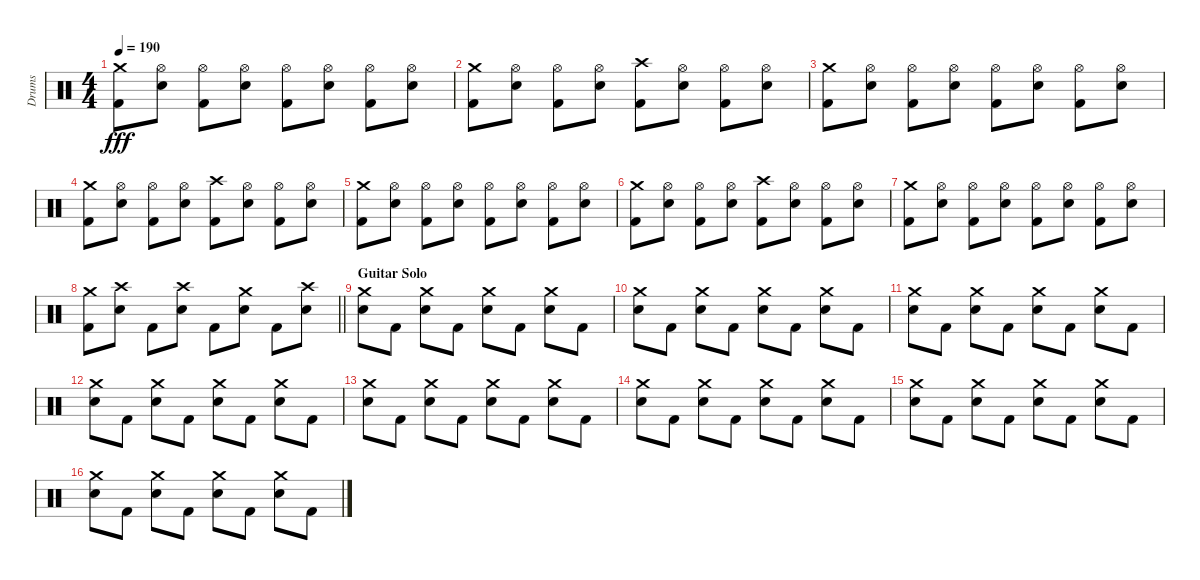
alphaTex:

\track ("Drums" "Drums") {instrument percussion}
\staff {score}
\articulation defaults
\ts (4 4)
\tempo 190
\clef neutral
\ks c
("Crash medium (hit)" "Kick (hit) 2").8{dy fff} ("Hi-Hat (open)" "Electric Snare (hit)").8 ("Hi-Hat (open)" "Kick (hit) 2").8 ("Hi-Hat (open)" "Electric Snare (hit)").8 ("Hi-Hat (open)" "Kick (hit) 2").8 ("Hi-Hat (open)" "Electric Snare (hit)").8 ("Hi-Hat (open)" "Kick (hit) 2").8 ("Hi-Hat (open)" "Electric Snare (hit)").8 |
("Crash medium (hit)" "Kick (hit) 2").8 ("Hi-Hat (open)" "Electric Snare (hit)").8 ("Hi-Hat (open)" "Kick (hit) 2").8 ("Hi-Hat (open)" "Electric Snare (hit)").8 ("Crash high (hit)" "Kick (hit) 2").8 ("Hi-Hat (open)" "Electric Snare (hit)").8 ("Hi-Hat (open)" "Kick (hit) 2").8 ("Hi-Hat (open)" "Electric Snare (hit)").8 |
("Crash medium (hit)" "Kick (hit) 2").8 ("Hi-Hat (open)" "Electric Snare (hit)").8 ("Hi-Hat (open)" "Kick (hit) 2").8 ("Hi-Hat (open)" "Electric Snare (hit)").8 ("Hi-Hat (open)" "Kick (hit) 2").8 ("Hi-Hat (open)" "Electric Snare (hit)").8 ("Hi-Hat (open)" "Kick (hit) 2").8 ("Hi-Hat (open)" "Electric Snare (hit)").8 |
("Crash medium (hit)" "Kick (hit) 2").8 ("Hi-Hat (open)" "Electric Snare (hit)").8 ("Hi-Hat (open)" "Kick (hit) 2").8 ("Hi-Hat (open)" "Electric Snare (hit)").8 ("Crash high (hit)" "Kick (hit) 2").8 ("Hi-Hat (open)" "Electric Snare (hit)").8 ("Hi-Hat (open)" "Kick (hit) 2").8 ("Hi-Hat (open)" "Electric Snare (hit)").8 |
("Crash medium (hit)" "Kick (hit) 2").8 ("Hi-Hat (open)" "Electric Snare (hit)").8 ("Hi-Hat (open)" "Kick (hit) 2").8 ("Hi-Hat (open)" "Electric Snare (hit)").8 ("Hi-Hat (open)" "Kick (hit) 2").8 ("Hi-Hat (open)" "Electric Snare (hit)").8 ("Hi-Hat (open)" "Kick (hit) 2").8 ("Hi-Hat (open)" "Electric Snare (hit)").8 |
("Crash medium (hit)" "Kick (hit) 2").8 ("Hi-Hat (open)" "Electric Snare (hit)").8 ("Hi-Hat (open)" "Kick (hit) 2").8 ("Hi-Hat (open)" "Electric Snare (hit)").8 ("Crash high (hit)" "Kick (hit) 2").8 ("Hi-Hat (open)" "Electric Snare (hit)").8 ("Hi-Hat (open)" "Kick (hit) 2").8 ("Hi-Hat (open)" "Electric Snare (hit)").8 |
("Crash medium (hit)" "Kick (hit) 2").8 ("Hi-Hat (open)" "Electric Snare (hit)").8 ("Hi-Hat (open)" "Kick (hit) 2").8 ("Hi-Hat (open)" "Electric Snare (hit)").8 ("Hi-Hat (open)" "Kick (hit) 2").8 ("Hi-Hat (open)" "Electric Snare (hit)").8 ("Hi-Hat (open)" "Kick (hit) 2").8 ("Hi-Hat (open)" "Electric Snare (hit)").8 |
\barLineRight lightlight
("Crash medium (hit)" "Kick (hit) 2").8 ("Crash high (hit)" "Electric Snare (hit)").8 "Kick (hit) 2".8 ("Crash high (hit)" "Electric Snare (hit)").8 "Kick (hit) 2".8 ("Crash medium (hit)" "Electric Snare (hit)").8 "Kick (hit) 2".8 ("Crash high (hit)" "Electric Snare (hit)").8 |
\section ("" "Guitar Solo")
("Crash medium (hit)" "Electric Snare (hit)").8 "Kick (hit) 2".8 ("Crash medium (hit)" "Electric Snare (hit)").8 "Kick (hit) 2".8 ("Crash medium (hit)" "Electric Snare (hit)").8 "Kick (hit) 2".8 ("Crash medium (hit)" "Electric Snare (hit)").8 "Kick (hit) 2".8 |
("Crash medium (hit)" "Electric Snare (hit)").8 "Kick (hit) 2".8 ("Crash medium (hit)" "Electric Snare (hit)").8 "Kick (hit) 2".8 ("Crash medium (hit)" "Electric Snare (hit)").8 "Kick (hit) 2".8 ("Crash medium (hit)" "Electric Snare (hit)").8 "Kick (hit) 2".8 |
("Crash medium (hit)" "Electric Snare (hit)").8 "Kick (hit) 2".8 ("Crash medium (hit)" "Electric Snare (hit)").8 "Kick (hit) 2".8 ("Crash medium (hit)" "Electric Snare (hit)").8 "Kick (hit) 2".8 ("Crash medium (hit)" "Electric Snare (hit)").8 "Kick (hit) 2".8 |
("Crash medium (hit)" "Electric Snare (hit)").8 "Kick (hit) 2".8 ("Crash medium (hit)" "Electric Snare (hit)").8 "Kick (hit) 2".8 ("Crash medium (hit)" "Electric Snare (hit)").8 "Kick (hit) 2".8 ("Crash medium (hit)" "Electric Snare (hit)").8 "Kick (hit) 2".8 |
("Crash medium (hit)" "Electric Snare (hit)").8 "Kick (hit) 2".8 ("Crash medium (hit)" "Electric Snare (hit)").8 "Kick (hit) 2".8 ("Crash medium (hit)" "Electric Snare (hit)").8 "Kick (hit) 2".8 ("Crash medium (hit)" "Electric Snare (hit)").8 "Kick (hit) 2".8 |
("Crash medium (hit)" "Electric Snare (hit)").8 "Kick (hit) 2".8 ("Crash medium (hit)" "Electric Snare (hit)").8 "Kick (hit) 2".8 ("Crash medium (hit)" "Electric Snare (hit)").8 "Kick (hit) 2".8 ("Crash medium (hit)" "Electric Snare (hit)").8 "Kick (hit) 2".8 |
("Crash medium (hit)" "Electric Snare (hit)").8 "Kick (hit) 2".8 ("Crash medium (hit)" "Electric Snare (hit)").8 "Kick (hit) 2".8 ("Crash medium (hit)" "Electric Snare (hit)").8 "Kick (hit) 2".8 ("Crash medium (hit)" "Electric Snare (hit)").8 "Kick (hit) 2".8 |
("Crash medium (hit)" "Electric Snare (hit)").8 "Kick (hit) 2".8 ("Crash medium (hit)" "Electric Snare (hit)").8 "Kick (hit) 2".8 ("Crash medium (hit)" "Electric Snare (hit)").8 "Kick (hit) 2".8 ("Crash medium (hit)" "Electric Snare (hit)").8 "Kick (hit) 2".8
